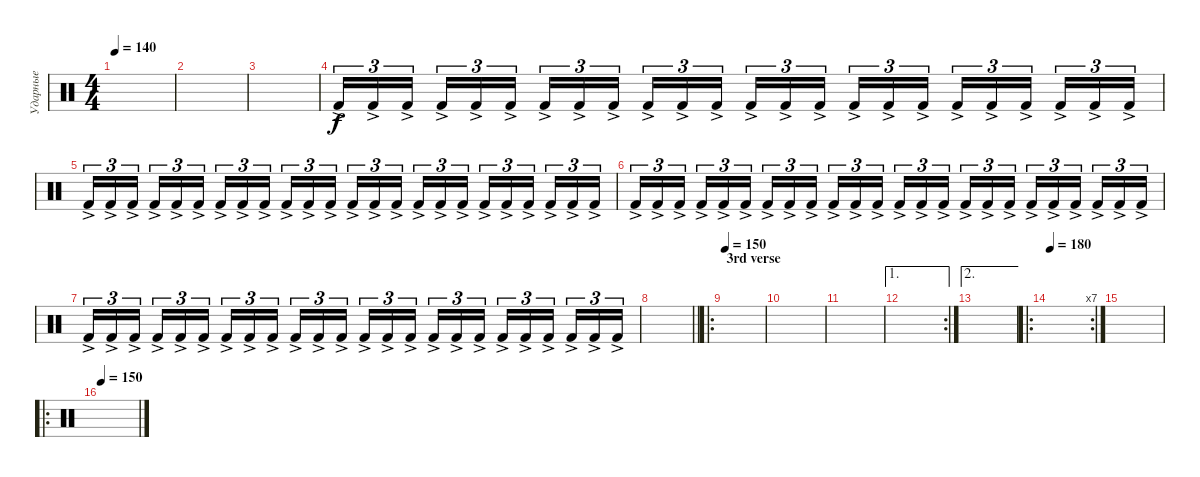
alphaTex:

\track ("Ударные" "Ударные") {instrument percussion}
\staff {score}
\articulation defaults
\ts (4 4)
\tempo 140
\clef neutral
\ks c
|
|
|
"Kick (hit) 2"{ac}.16{tu (3 2)} "Kick (hit) 2"{ac}.16{tu (3 2)} "Kick (hit) 2"{ac}.16{tu (3 2) beam splitsecondary} "Kick (hit) 2"{ac}.16{tu (3 2)} "Kick (hit) 2"{ac}.16{tu (3 2)} "Kick (hit) 2"{ac}.16{tu (3 2)} "Kick (hit) 2"{ac}.16{tu (3 2)} "Kick (hit) 2"{ac}.16{tu (3 2)} "Kick (hit) 2"{ac}.16{tu (3 2) beam splitsecondary} "Kick (hit) 2"{ac}.16{tu (3 2)} "Kick (hit) 2"{ac}.16{tu (3 2)} "Kick (hit) 2"{ac}.16{tu (3 2)} "Kick (hit) 2"{ac}.16{tu (3 2)} "Kick (hit) 2"{ac}.16{tu (3 2)} "Kick (hit) 2"{ac}.16{tu (3 2) beam splitsecondary} "Kick (hit) 2"{ac}.16{tu (3 2)} "Kick (hit) 2"{ac}.16{tu (3 2)} "Kick (hit) 2"{ac}.16{tu (3 2)} "Kick (hit) 2"{ac}.16{tu (3 2)} "Kick (hit) 2"{ac}.16{tu (3 2)} "Kick (hit) 2"{ac}.16{tu (3 2) beam splitsecondary} "Kick (hit) 2"{ac}.16{tu (3 2)} "Kick (hit) 2"{ac}.16{tu (3 2)} "Kick (hit) 2"{ac}.16{tu (3 2)} |
"Kick (hit) 2"{ac}.16{tu (3 2)} "Kick (hit) 2"{ac}.16{tu (3 2)} "Kick (hit) 2"{ac}.16{tu (3 2) beam splitsecondary} "Kick (hit) 2"{ac}.16{tu (3 2)} "Kick (hit) 2"{ac}.16{tu (3 2)} "Kick (hit) 2"{ac}.16{tu (3 2)} "Kick (hit) 2"{ac}.16{tu (3 2)} "Kick (hit) 2"{ac}.16{tu (3 2)} "Kick (hit) 2"{ac}.16{tu (3 2) beam splitsecondary} "Kick (hit) 2"{ac}.16{tu (3 2)} "Kick (hit) 2"{ac}.16{tu (3 2)} "Kick (hit) 2"{ac}.16{tu (3 2)} "Kick (hit) 2"{ac}.16{tu (3 2)} "Kick (hit) 2"{ac}.16{tu (3 2)} "Kick (hit) 2"{ac}.16{tu (3 2) beam splitsecondary} "Kick (hit) 2"{ac}.16{tu (3 2)} "Kick (hit) 2"{ac}.16{tu (3 2)} "Kick (hit) 2"{ac}.16{tu (3 2)} "Kick (hit) 2"{ac}.16{tu (3 2)} "Kick (hit) 2"{ac}.16{tu (3 2)} "Kick (hit) 2"{ac}.16{tu (3 2) beam splitsecondary} "Kick (hit) 2"{ac}.16{tu (3 2)} "Kick (hit) 2"{ac}.16{tu (3 2)} "Kick (hit) 2"{ac}.16{tu (3 2)} |
"Kick (hit) 2"{ac}.16{tu (3 2)} "Kick (hit) 2"{ac}.16{tu (3 2)} "Kick (hit) 2"{ac}.16{tu (3 2) beam splitsecondary} "Kick (hit) 2"{ac}.16{tu (3 2)} "Kick (hit) 2"{ac}.16{tu (3 2)} "Kick (hit) 2"{ac}.16{tu (3 2)} "Kick (hit) 2"{ac}.16{tu (3 2)} "Kick (hit) 2"{ac}.16{tu (3 2)} "Kick (hit) 2"{ac}.16{tu (3 2) beam splitsecondary} "Kick (hit) 2"{ac}.16{tu (3 2)} "Kick (hit) 2"{ac}.16{tu (3 2)} "Kick (hit) 2"{ac}.16{tu (3 2)} "Kick (hit) 2"{ac}.16{tu (3 2)} "Kick (hit) 2"{ac}.16{tu (3 2)} "Kick (hit) 2"{ac}.16{tu (3 2) beam splitsecondary} "Kick (hit) 2"{ac}.16{tu (3 2)} "Kick (hit) 2"{ac}.16{tu (3 2)} "Kick (hit) 2"{ac}.16{tu (3 2)} "Kick (hit) 2"{ac}.16{tu (3 2)} "Kick (hit) 2"{ac}.16{tu (3 2)} "Kick (hit) 2"{ac}.16{tu (3 2) beam splitsecondary} "Kick (hit) 2"{ac}.16{tu (3 2)} "Kick (hit) 2"{ac}.16{tu (3 2)} "Kick (hit) 2"{ac}.16{tu (3 2)} |
"Kick (hit) 2"{ac}.16{tu (3 2)} "Kick (hit) 2"{ac}.16{tu (3 2)} "Kick (hit) 2"{ac}.16{tu (3 2) beam splitsecondary} "Kick (hit) 2"{ac}.16{tu (3 2)} "Kick (hit) 2"{ac}.16{tu (3 2)} "Kick (hit) 2"{ac}.16{tu (3 2)} "Kick (hit) 2"{ac}.16{tu (3 2)} "Kick (hit) 2"{ac}.16{tu (3 2)} "Kick (hit) 2"{ac}.16{tu (3 2) beam splitsecondary} "Kick (hit) 2"{ac}.16{tu (3 2)} "Kick (hit) 2"{ac}.16{tu (3 2)} "Kick (hit) 2"{ac}.16{tu (3 2)} "Kick (hit) 2"{ac}.16{tu (3 2)} "Kick (hit) 2"{ac}.16{tu (3 2)} "Kick (hit) 2"{ac}.16{tu (3 2) beam splitsecondary} "Kick (hit) 2"{ac}.16{tu (3 2)} "Kick (hit) 2"{ac}.16{tu (3 2)} "Kick (hit) 2"{ac}.16{tu (3 2)} "Kick (hit) 2"{ac}.16{tu (3 2)} "Kick (hit) 2"{ac}.16{tu (3 2)} "Kick (hit) 2"{ac}.16{tu (3 2) beam splitsecondary} "Kick (hit) 2"{ac}.16{tu (3 2)} "Kick (hit) 2"{ac}.16{tu (3 2)} "Kick (hit) 2"{ac}.16{tu (3 2)} |
\barLineRight lightlight
|
\ro
\section ("" "3rd verse")
\tempo 150
|
|
|
\ae 1
\rc 2
|
\ae 2
|
\ro
\rc 7
\tempo 180
|
|
\ro
\tempo 150
